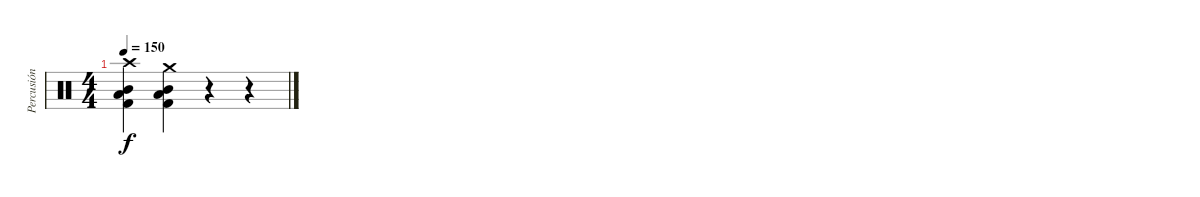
\track ("Percusión" "Percusión") {instrument percussion}
\staff {score}
\articulation defaults
\ts (4 4)
\tempo 150
\clef neutral
\ks c
("Crash high (hit)" "Mid Tom (hit)" "Low Tom (hit)" "Kick (hit) 2").4{dy f} ("Crash medium (hit)" "Mid Tom (hit)" "Low Tom (hit)" "Kick (hit) 2").4 r.4 r.4
